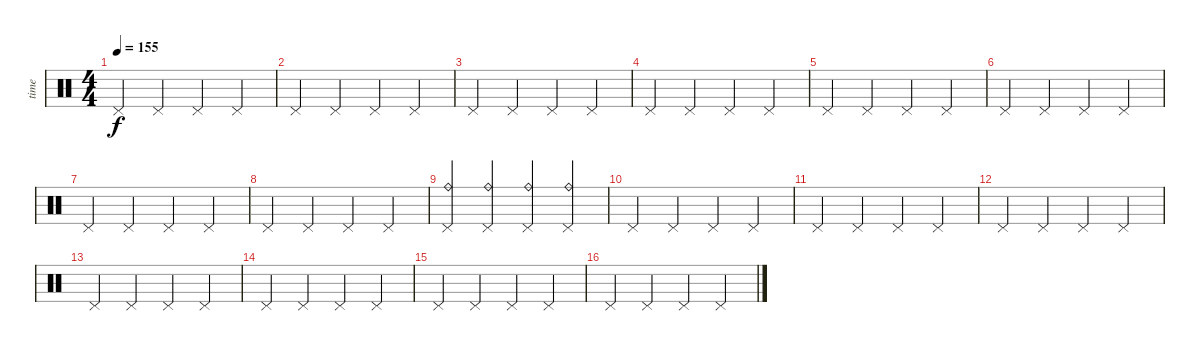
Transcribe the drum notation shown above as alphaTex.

\track ("time" "time") {instrument percussion}
\staff {score}
\articulation defaults
\ts (4 4)
\tempo 155
\clef neutral
\ks c "Pedal Hi-Hat (hit)".4{dy f} "Pedal Hi-Hat (hit)".4 "Pedal Hi-Hat (hit)".4 "Pedal Hi-Hat (hit)".4
|
"Pedal Hi-Hat (hit)".4 "Pedal Hi-Hat (hit)".4 "Pedal Hi-Hat (hit)".4 "Pedal Hi-Hat (hit)".4 |
"Pedal Hi-Hat (hit)".4 "Pedal Hi-Hat (hit)".4 "Pedal Hi-Hat (hit)".4 "Pedal Hi-Hat (hit)".4 |
"Pedal Hi-Hat (hit)".4 "Pedal Hi-Hat (hit)".4 "Pedal Hi-Hat (hit)".4 "Pedal Hi-Hat (hit)".4 |
"Pedal Hi-Hat (hit)".4 "Pedal Hi-Hat (hit)".4 "Pedal Hi-Hat (hit)".4 "Pedal Hi-Hat (hit)".4 |
"Pedal Hi-Hat (hit)".4 "Pedal Hi-Hat (hit)".4 "Pedal Hi-Hat (hit)".4 "Pedal Hi-Hat (hit)".4 |
"Pedal Hi-Hat (hit)".4 "Pedal Hi-Hat (hit)".4 "Pedal Hi-Hat (hit)".4 "Pedal Hi-Hat (hit)".4 |
"Pedal Hi-Hat (hit)".4 "Pedal Hi-Hat (hit)".4 "Pedal Hi-Hat (hit)".4 "Pedal Hi-Hat (hit)".4 |
("Ride (bell)" "Pedal Hi-Hat (hit)").4 ("Ride (bell)" "Pedal Hi-Hat (hit)").4 ("Ride (bell)" "Pedal Hi-Hat (hit)").4 ("Ride (bell)" "Pedal Hi-Hat (hit)").4 |
"Pedal Hi-Hat (hit)".4 "Pedal Hi-Hat (hit)".4 "Pedal Hi-Hat (hit)".4 "Pedal Hi-Hat (hit)".4 |
"Pedal Hi-Hat (hit)".4 "Pedal Hi-Hat (hit)".4 "Pedal Hi-Hat (hit)".4 "Pedal Hi-Hat (hit)".4 |
"Pedal Hi-Hat (hit)".4 "Pedal Hi-Hat (hit)".4 "Pedal Hi-Hat (hit)".4 "Pedal Hi-Hat (hit)".4 |
"Pedal Hi-Hat (hit)".4 "Pedal Hi-Hat (hit)".4 "Pedal Hi-Hat (hit)".4 "Pedal Hi-Hat (hit)".4 |
"Pedal Hi-Hat (hit)".4 "Pedal Hi-Hat (hit)".4 "Pedal Hi-Hat (hit)".4 "Pedal Hi-Hat (hit)".4 |
"Pedal Hi-Hat (hit)".4 "Pedal Hi-Hat (hit)".4 "Pedal Hi-Hat (hit)".4 "Pedal Hi-Hat (hit)".4 |
"Pedal Hi-Hat (hit)".4 "Pedal Hi-Hat (hit)".4 "Pedal Hi-Hat (hit)".4 "Pedal Hi-Hat (hit)".4
